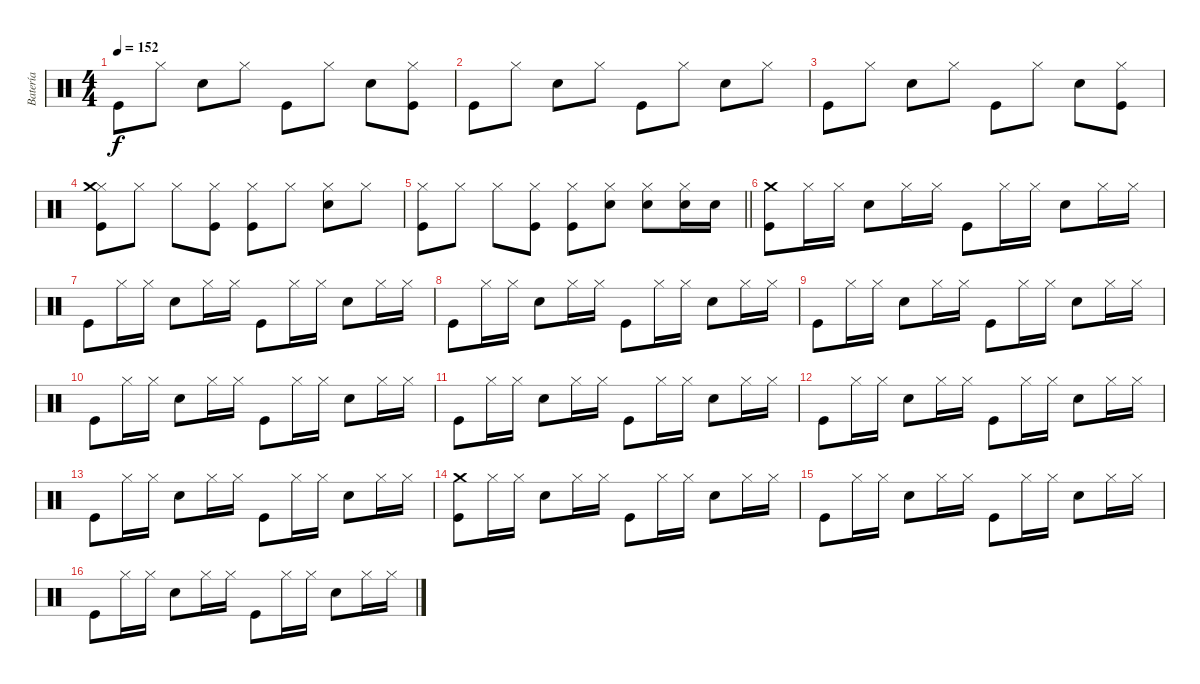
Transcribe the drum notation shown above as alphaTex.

\track ("Batería" "Batería") {instrument percussion}
\staff {score}
\articulation defaults
\ts (4 4)
\tempo 152
\clef neutral
\ks c "Kick (hit)".8{dy f} "Hi-Hat (closed)".8 "Snare (hit) 2".8 "Hi-Hat (closed)".8 "Kick (hit)".8 "Hi-Hat (closed)".8 "Snare (hit) 2".8
("Kick (hit)" "Hi-Hat (closed)").8 |
"Kick (hit)".8 "Hi-Hat (closed)".8 "Snare (hit) 2".8 "Hi-Hat (closed)".8 "Kick (hit)".8 "Hi-Hat (closed)".8 "Snare (hit) 2".8 "Hi-Hat (closed)".8 |
"Kick (hit)".8 "Hi-Hat (closed)".8 "Snare (hit) 2".8 "Hi-Hat (closed)".8 "Kick (hit)".8 "Hi-Hat (closed)".8 "Snare (hit) 2".8 ("Kick (hit)" "Hi-Hat (closed)").8 |
("Hi-Hat (closed)" "Crash medium (hit)" "Kick (hit)").8 "Hi-Hat (closed)".8 "Hi-Hat (closed)".8 ("Hi-Hat (closed)" "Kick (hit)").8 ("Hi-Hat (closed)" "Kick (hit)").8 "Hi-Hat (closed)".8 ("Hi-Hat (closed)" "Snare (hit) 2").8 "Hi-Hat (closed)".8 |
\barLineRight lightlight
("Hi-Hat (closed)" "Kick (hit)").8 "Hi-Hat (closed)".8 "Hi-Hat (closed)".8 ("Hi-Hat (closed)" "Kick (hit)").8 ("Hi-Hat (closed)" "Kick (hit)").8 ("Hi-Hat (closed)" "Snare (hit) 2").8 ("Hi-Hat (closed)" "Snare (hit) 2").8 ("Hi-Hat (closed)" "Snare (hit) 2").16 "Snare (hit) 2".16 |
("Crash medium (hit)" "Kick (hit)").8 "Hi-Hat (closed)".16 "Hi-Hat (closed)".16 "Snare (hit) 2".8 "Hi-Hat (closed)".16 "Hi-Hat (closed)".16 "Kick (hit)".8 "Hi-Hat (closed)".16 "Hi-Hat (closed)".16 "Snare (hit) 2".8 "Hi-Hat (closed)".16 "Hi-Hat (closed)".16 |
"Kick (hit)".8 "Hi-Hat (closed)".16 "Hi-Hat (closed)".16 "Snare (hit) 2".8 "Hi-Hat (closed)".16 "Hi-Hat (closed)".16 "Kick (hit)".8 "Hi-Hat (closed)".16 "Hi-Hat (closed)".16 "Snare (hit) 2".8 "Hi-Hat (closed)".16 "Hi-Hat (closed)".16 |
"Kick (hit)".8 "Hi-Hat (closed)".16 "Hi-Hat (closed)".16 "Snare (hit) 2".8 "Hi-Hat (closed)".16 "Hi-Hat (closed)".16 "Kick (hit)".8 "Hi-Hat (closed)".16 "Hi-Hat (closed)".16 "Snare (hit) 2".8 "Hi-Hat (closed)".16 "Hi-Hat (closed)".16 |
"Kick (hit)".8 "Hi-Hat (closed)".16 "Hi-Hat (closed)".16 "Snare (hit) 2".8 "Hi-Hat (closed)".16 "Hi-Hat (closed)".16 "Kick (hit)".8 "Hi-Hat (closed)".16 "Hi-Hat (closed)".16 "Snare (hit) 2".8 "Hi-Hat (closed)".16 "Hi-Hat (closed)".16 |
"Kick (hit)".8 "Hi-Hat (closed)".16 "Hi-Hat (closed)".16 "Snare (hit) 2".8 "Hi-Hat (closed)".16 "Hi-Hat (closed)".16 "Kick (hit)".8 "Hi-Hat (closed)".16 "Hi-Hat (closed)".16 "Snare (hit) 2".8 "Hi-Hat (closed)".16 "Hi-Hat (closed)".16 |
"Kick (hit)".8 "Hi-Hat (closed)".16 "Hi-Hat (closed)".16 "Snare (hit) 2".8 "Hi-Hat (closed)".16 "Hi-Hat (closed)".16 "Kick (hit)".8 "Hi-Hat (closed)".16 "Hi-Hat (closed)".16 "Snare (hit) 2".8 "Hi-Hat (closed)".16 "Hi-Hat (closed)".16 |
"Kick (hit)".8 "Hi-Hat (closed)".16 "Hi-Hat (closed)".16 "Snare (hit) 2".8 "Hi-Hat (closed)".16 "Hi-Hat (closed)".16 "Kick (hit)".8 "Hi-Hat (closed)".16 "Hi-Hat (closed)".16 "Snare (hit) 2".8 "Hi-Hat (closed)".16 "Hi-Hat (closed)".16 |
"Kick (hit)".8 "Hi-Hat (closed)".16 "Hi-Hat (closed)".16 "Snare (hit) 2".8 "Hi-Hat (closed)".16 "Hi-Hat (closed)".16 "Kick (hit)".8 "Hi-Hat (closed)".16 "Hi-Hat (closed)".16 "Snare (hit) 2".8 "Hi-Hat (closed)".16 "Hi-Hat (closed)".16 |
("Crash medium (hit)" "Kick (hit)").8 "Hi-Hat (closed)".16 "Hi-Hat (closed)".16 "Snare (hit) 2".8 "Hi-Hat (closed)".16 "Hi-Hat (closed)".16 "Kick (hit)".8 "Hi-Hat (closed)".16 "Hi-Hat (closed)".16 "Snare (hit) 2".8 "Hi-Hat (closed)".16 "Hi-Hat (closed)".16 |
"Kick (hit)".8 "Hi-Hat (closed)".16 "Hi-Hat (closed)".16 "Snare (hit) 2".8 "Hi-Hat (closed)".16 "Hi-Hat (closed)".16 "Kick (hit)".8 "Hi-Hat (closed)".16 "Hi-Hat (closed)".16 "Snare (hit) 2".8 "Hi-Hat (closed)".16 "Hi-Hat (closed)".16 |
"Kick (hit)".8 "Hi-Hat (closed)".16 "Hi-Hat (closed)".16 "Snare (hit) 2".8 "Hi-Hat (closed)".16 "Hi-Hat (closed)".16 "Kick (hit)".8 "Hi-Hat (closed)".16 "Hi-Hat (closed)".16 "Snare (hit) 2".8 "Hi-Hat (closed)".16 "Hi-Hat (closed)".16
